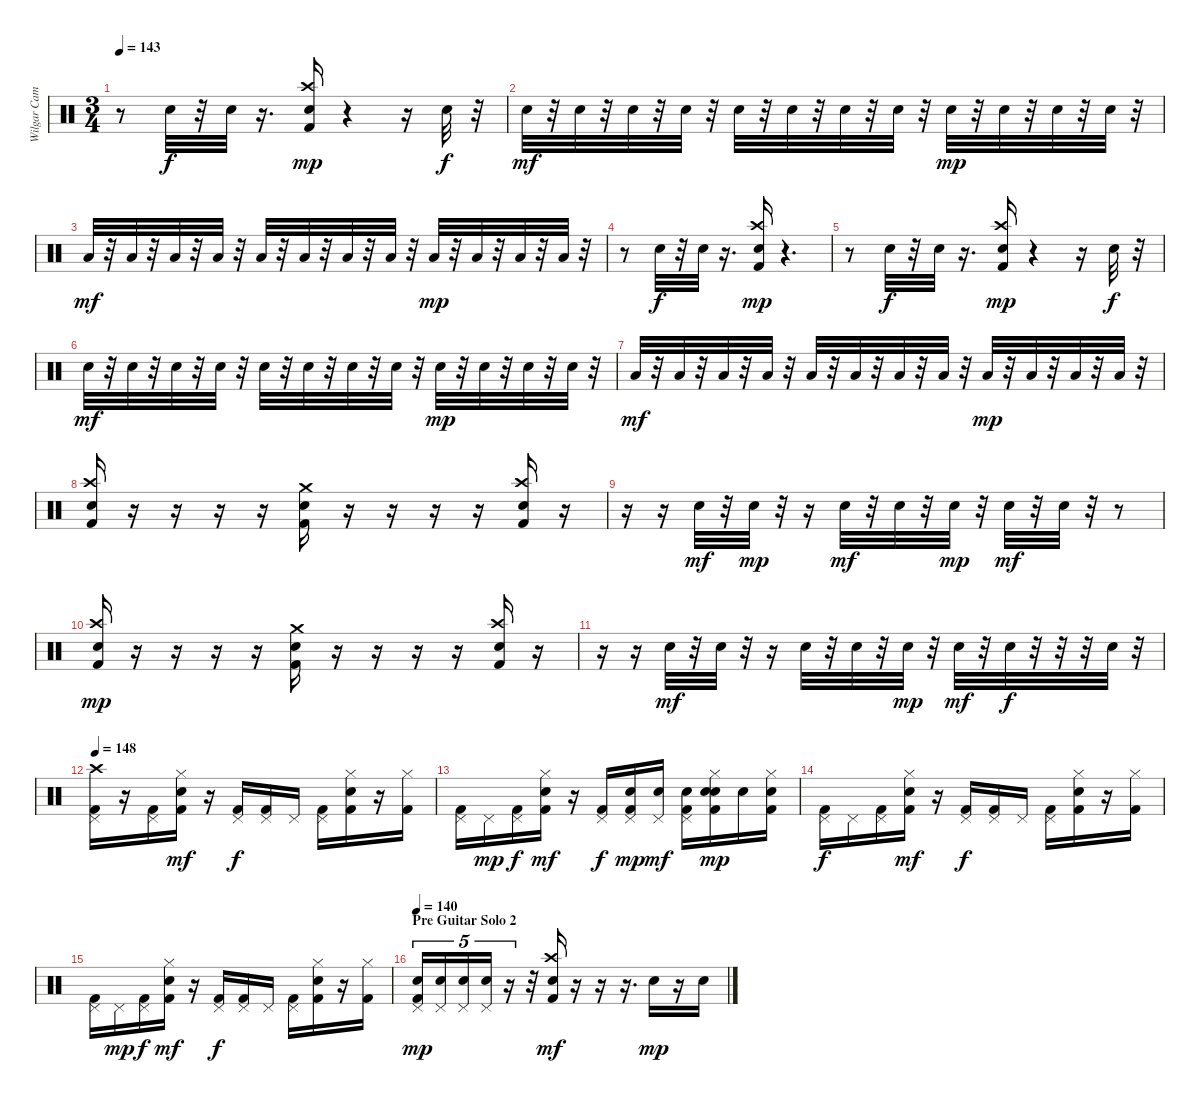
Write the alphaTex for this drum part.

\track ("Wilgar Campbell" "Wilgar Cam") {instrument percussion}
\staff {score}
\articulation defaults
\ts (3 4)
\tempo 143
\clef neutral
\ks c
r.8{dy mp} "Snare (hit) 2".32{dy f} r.32 "Snare (hit) 2".32 r.16{d} ("Crash high (hit)" "Snare (hit) 2" "Kick (hit) 2").16{dy mp} r.4 r.16 "Snare (hit) 2".32{dy f} r.32 |
"Snare (hit) 2".32{dy mf} r.32 "Snare (hit) 2".32 r.32 "Snare (hit) 2".32 r.32 "Snare (hit) 2".32 r.32 "Snare (hit) 2".32 r.32 "Snare (hit) 2".32 r.32 "Snare (hit) 2".32 r.32 "Snare (hit) 2".32 r.32 "Snare (hit) 2".32{dy mp} r.32 "Snare (hit) 2".32 r.32 "Snare (hit) 2".32 r.32 "Snare (hit) 2".32 r.32 |
"Low Tom (hit)".32{dy mf} r.32 "Low Tom (hit)".32 r.32 "Low Tom (hit)".32 r.32 "Low Tom (hit)".32 r.32 "Low Tom (hit)".32 r.32 "Low Tom (hit)".32 r.32 "Low Tom (hit)".32 r.32 "Low Tom (hit)".32 r.32 "Low Tom (hit)".32{dy mp} r.32 "Low Tom (hit)".32 r.32 "Low Tom (hit)".32 r.32 "Low Tom (hit)".32 r.32 |
r.8 "Snare (hit) 2".32{dy f} r.32 "Snare (hit) 2".32 r.16{d} ("Crash high (hit)" "Snare (hit) 2" "Kick (hit) 2").16{dy mp} r.4{d} |
r.8 "Snare (hit) 2".32{dy f} r.32 "Snare (hit) 2".32 r.16{d} ("Crash high (hit)" "Snare (hit) 2" "Kick (hit) 2").16{dy mp} r.4 r.16 "Snare (hit) 2".32{dy f} r.32 |
"Snare (hit) 2".32{dy mf} r.32 "Snare (hit) 2".32 r.32 "Snare (hit) 2".32 r.32 "Snare (hit) 2".32 r.32 "Snare (hit) 2".32 r.32 "Snare (hit) 2".32 r.32 "Snare (hit) 2".32 r.32 "Snare (hit) 2".32 r.32 "Snare (hit) 2".32{dy mp} r.32 "Snare (hit) 2".32 r.32 "Snare (hit) 2".32 r.32 "Snare (hit) 2".32 r.32 |
"Low Tom (hit)".32{dy mf} r.32 "Low Tom (hit)".32 r.32 "Low Tom (hit)".32 r.32 "Low Tom (hit)".32 r.32 "Low Tom (hit)".32 r.32 "Low Tom (hit)".32 r.32 "Low Tom (hit)".32 r.32 "Low Tom (hit)".32 r.32 "Low Tom (hit)".32{dy mp} r.32 "Low Tom (hit)".32 r.32 "Low Tom (hit)".32 r.32 "Low Tom (hit)".32 r.32 |
("Crash high (hit)" "Snare (hit) 2" "Kick (hit) 2").16 r.16 r.16 r.16 r.16 ("Crash medium (hit)" "Snare (hit) 2" "Kick (hit) 2").16 r.16 r.16 r.16 r.16 ("Crash high (hit)" "Snare (hit) 2" "Kick (hit) 2").16 r.16 |
r.16 r.16 "Snare (hit) 2".32{dy mf} r.32 "Electric Snare (hit)".32{dy mp} r.32 r.16 "Snare (hit) 2".32{dy mf} r.32 "Snare (hit) 2".32 r.32 "Snare (hit) 2".32{dy mp} r.32 "Snare (hit) 2".32{dy mf} r.32 "Electric Snare (hit)".32 r.32 r.8 |
("Crash high (hit)" "Snare (hit) 2" "Kick (hit) 2").16{dy mp} r.16 r.16 r.16 r.16 ("Crash medium (hit)" "Snare (hit) 2" "Kick (hit) 2").16 r.16 r.16 r.16 r.16 ("Crash high (hit)" "Snare (hit) 2" "Kick (hit) 2").16 r.16 |
r.16 r.16 "Snare (hit) 2".32{dy mf} r.32 "Snare (hit) 2".32 r.32 r.16 "Snare (hit) 2".32 r.32 "Snare (hit) 2".32 r.32 "Snare (hit) 2".32{dy mp} r.32 "Snare (hit) 2".32{dy mf} r.32 "Snare (hit) 2".32{dy f} r.32 r.32 r.32 "Snare (hit) 2".32 r.32 |
\tempo 148
("Crash high (hit)" "Pedal Hi-Hat (hit)" "Kick (hit) 2").16 r.16 ("Pedal Hi-Hat (hit)" "Kick (hit) 2").16 ("Snare (hit) 2" "Hi-Hat (closed)" "Kick (hit) 2").16{dy mf} r.16 ("Pedal Hi-Hat (hit)" "Kick (hit) 2").16{dy f} ("Pedal Hi-Hat (hit)" "Kick (hit) 2").16 "Pedal Hi-Hat (hit)".16 ("Pedal Hi-Hat (hit)" "Kick (hit) 2").16 ("Snare (hit) 2" "Hi-Hat (closed)" "Kick (hit) 2").16 r.16 ("Hi-Hat (closed)" "Kick (hit) 2").16 |
("Pedal Hi-Hat (hit)" "Kick (hit) 2").16 "Pedal Hi-Hat (hit)".16{dy mp} ("Pedal Hi-Hat (hit)" "Kick (hit) 2").16{dy f} ("Snare (hit) 2" "Hi-Hat (closed)" "Kick (hit) 2").16{dy mf} r.16 ("Pedal Hi-Hat (hit)" "Kick (hit) 2").16{dy f} ("Pedal Hi-Hat (hit)" "Snare (hit) 2" "Kick (hit) 2").16{dy mp} ("Pedal Hi-Hat (hit)" "Snare (hit) 2").16{dy mf} ("Pedal Hi-Hat (hit)" "Snare (hit) 2" "Kick (hit) 2").16 ("Snare (hit) 2" "Hi-Hat (closed)" "Snare (hit) 2" "Kick (hit) 2").16{dy mp} "Snare (hit) 2".16 ("Hi-Hat (closed)" "Snare (hit) 2" "Kick (hit) 2").16 |
("Pedal Hi-Hat (hit)" "Kick (hit) 2").16{dy f} "Pedal Hi-Hat (hit)".16 ("Pedal Hi-Hat (hit)" "Kick (hit) 2").16 ("Snare (hit) 2" "Hi-Hat (closed)" "Kick (hit) 2").16{dy mf} r.16 ("Pedal Hi-Hat (hit)" "Kick (hit) 2").16{dy f} ("Pedal Hi-Hat (hit)" "Kick (hit) 2").16 "Pedal Hi-Hat (hit)".16 ("Pedal Hi-Hat (hit)" "Kick (hit) 2").16 ("Snare (hit) 2" "Hi-Hat (closed)" "Kick (hit) 2").16 r.16 ("Hi-Hat (closed)" "Kick (hit) 2").16 |
("Pedal Hi-Hat (hit)" "Kick (hit) 2").16 "Pedal Hi-Hat (hit)".16{dy mp} ("Pedal Hi-Hat (hit)" "Kick (hit) 2").16{dy f} ("Snare (hit) 2" "Hi-Hat (closed)" "Kick (hit) 2").16{dy mf} r.16 ("Pedal Hi-Hat (hit)" "Kick (hit) 2").16{dy f} ("Pedal Hi-Hat (hit)" "Kick (hit) 2").16 "Pedal Hi-Hat (hit)".16 ("Pedal Hi-Hat (hit)" "Kick (hit) 2").16 ("Snare (hit) 2" "Hi-Hat (closed)" "Kick (hit) 2").16 r.16 ("Hi-Hat (closed)" "Kick (hit) 2").16 |
\section ("" "Pre Guitar Solo 2")
\tempo 140
("Snare (hit) 2" "Pedal Hi-Hat (hit)" "Kick (hit) 2").16{tu (5 4) dy mp} ("Snare (hit) 2" "Pedal Hi-Hat (hit)").16{tu (5 4)} ("Snare (hit) 2" "Pedal Hi-Hat (hit)").16{tu (5 4)} ("Snare (hit) 2" "Pedal Hi-Hat (hit)").16{tu (5 4)} r.16{tu (5 4)} r.32 ("Crash high (hit)" "Snare (hit) 2" "Kick (hit) 2").16{dy mf} r.16 r.16 r.16{d} "Electric Snare (hit)".16{dy mp} r.16 "Electric Snare (hit)".16
